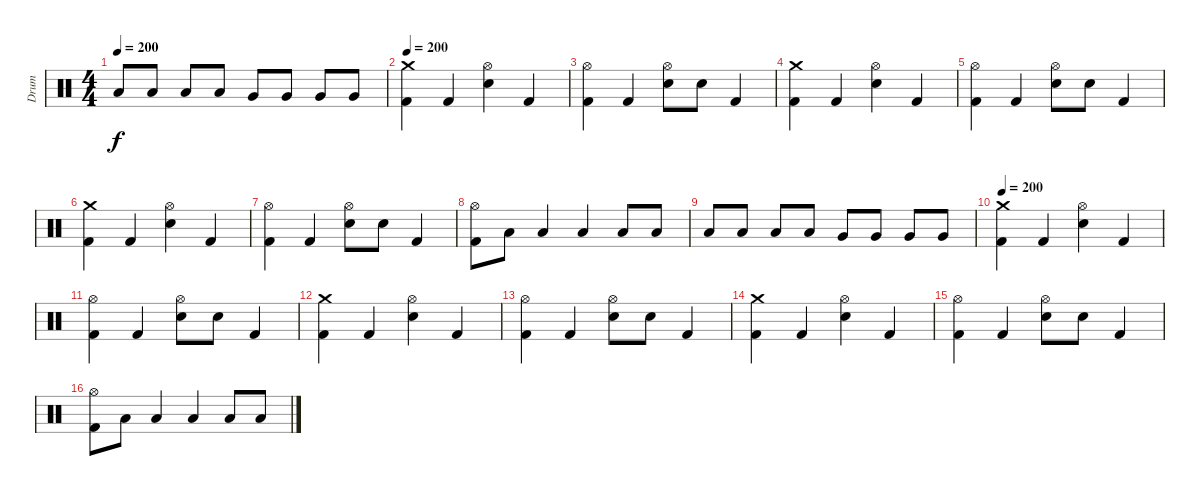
\track ("Drum" "Drum") {instrument percussion}
\staff {score}
\articulation defaults
\ts (4 4)
\tempo 200
\clef neutral
\ks c "Low Tom (hit)".8{dy f} "Low Tom (hit)".8 "Low Tom (hit)".8 "Low Tom (hit)".8 "Very Low Tom (hit)".8 "Very Low Tom (hit)".8 "Very Low Tom (hit)".8 "Very Low Tom (hit)".8
|
\tempo 200
("Crash medium (hit)" "Kick (hit) 2").4 "Kick (hit) 2".4 ("Electric Snare (hit)" "Hi-Hat (open)").4 "Kick (hit) 2".4 |
("Hi-Hat (open)" "Kick (hit) 2").4 "Kick (hit) 2".4 ("Electric Snare (hit)" "Hi-Hat (open)").8 "Electric Snare (hit)".8 "Kick (hit) 2".4 |
("Crash medium (hit)" "Kick (hit) 2").4 "Kick (hit) 2".4 ("Electric Snare (hit)" "Hi-Hat (open)").4 "Kick (hit) 2".4 |
("Hi-Hat (open)" "Kick (hit) 2").4 "Kick (hit) 2".4 ("Electric Snare (hit)" "Hi-Hat (open)").8 "Electric Snare (hit)".8 "Kick (hit) 2".4 |
("Crash medium (hit)" "Kick (hit) 2").4 "Kick (hit) 2".4 ("Electric Snare (hit)" "Hi-Hat (open)").4 "Kick (hit) 2".4 |
("Hi-Hat (open)" "Kick (hit) 2").4 "Kick (hit) 2".4 ("Electric Snare (hit)" "Hi-Hat (open)").8 "Electric Snare (hit)".8 "Kick (hit) 2".4 |
("Hi-Hat (open)" "Kick (hit) 2").8 "Low Tom (hit)".8 "Low Tom (hit)".4 "Low Tom (hit)".4 "Low Tom (hit)".8 "Low Tom (hit)".8 |
"Low Tom (hit)".8 "Low Tom (hit)".8 "Low Tom (hit)".8 "Low Tom (hit)".8 "Very Low Tom (hit)".8 "Very Low Tom (hit)".8 "Very Low Tom (hit)".8 "Very Low Tom (hit)".8 |
\tempo 200
("Crash medium (hit)" "Kick (hit) 2").4 "Kick (hit) 2".4 ("Electric Snare (hit)" "Hi-Hat (open)").4 "Kick (hit) 2".4 |
("Hi-Hat (open)" "Kick (hit) 2").4 "Kick (hit) 2".4 ("Electric Snare (hit)" "Hi-Hat (open)").8 "Electric Snare (hit)".8 "Kick (hit) 2".4 |
("Crash medium (hit)" "Kick (hit) 2").4 "Kick (hit) 2".4 ("Electric Snare (hit)" "Hi-Hat (open)").4 "Kick (hit) 2".4 |
("Hi-Hat (open)" "Kick (hit) 2").4 "Kick (hit) 2".4 ("Electric Snare (hit)" "Hi-Hat (open)").8 "Electric Snare (hit)".8 "Kick (hit) 2".4 |
("Crash medium (hit)" "Kick (hit) 2").4 "Kick (hit) 2".4 ("Electric Snare (hit)" "Hi-Hat (open)").4 "Kick (hit) 2".4 |
("Hi-Hat (open)" "Kick (hit) 2").4 "Kick (hit) 2".4 ("Electric Snare (hit)" "Hi-Hat (open)").8 "Electric Snare (hit)".8 "Kick (hit) 2".4 |
("Hi-Hat (open)" "Kick (hit) 2").8 "Low Tom (hit)".8 "Low Tom (hit)".4 "Low Tom (hit)".4 "Low Tom (hit)".8 "Low Tom (hit)".8
